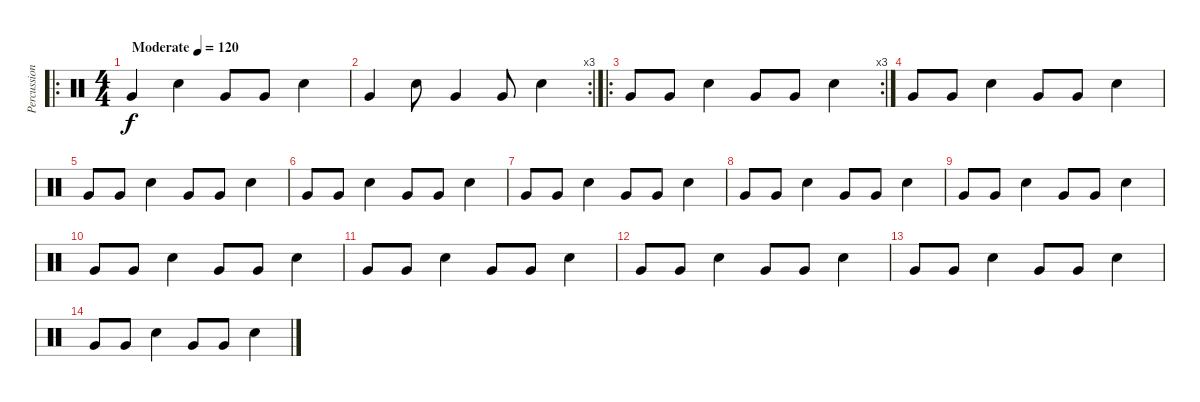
\track ("Percussioni" "Percussion") {instrument percussion}
\staff {score}
\articulation defaults
\ro
\ts (4 4)
\tempo (120 "Moderate")
\clef neutral
\ks c "Very Low Tom (hit)".4{dy f} "Snare (hit) 2".4 "Very Low Tom (hit)".8 "Very Low Tom (hit)".8 "Snare (hit) 2".4
|
\rc 3 "Very Low Tom (hit)".4 "Snare (hit) 2".8 "Very Low Tom (hit)".4 "Very Low Tom (hit)".8 "Snare (hit) 2".4
|
\ro
\rc 3 "Very Low Tom (hit)".8 "Very Low Tom (hit)".8 "Snare (hit) 2".4 "Very Low Tom (hit)".8 "Very Low Tom (hit)".8 "Snare (hit) 2".4
|
"Very Low Tom (hit)".8 "Very Low Tom (hit)".8 "Snare (hit) 2".4 "Very Low Tom (hit)".8 "Very Low Tom (hit)".8 "Snare (hit) 2".4 |
"Very Low Tom (hit)".8 "Very Low Tom (hit)".8 "Snare (hit) 2".4 "Very Low Tom (hit)".8 "Very Low Tom (hit)".8 "Snare (hit) 2".4 |
"Very Low Tom (hit)".8 "Very Low Tom (hit)".8 "Snare (hit) 2".4 "Very Low Tom (hit)".8 "Very Low Tom (hit)".8 "Snare (hit) 2".4 |
"Very Low Tom (hit)".8 "Very Low Tom (hit)".8 "Snare (hit) 2".4 "Very Low Tom (hit)".8 "Very Low Tom (hit)".8 "Snare (hit) 2".4 |
"Very Low Tom (hit)".8 "Very Low Tom (hit)".8 "Snare (hit) 2".4 "Very Low Tom (hit)".8 "Very Low Tom (hit)".8 "Snare (hit) 2".4 |
"Very Low Tom (hit)".8 "Very Low Tom (hit)".8 "Snare (hit) 2".4 "Very Low Tom (hit)".8 "Very Low Tom (hit)".8 "Snare (hit) 2".4 |
"Very Low Tom (hit)".8 "Very Low Tom (hit)".8 "Snare (hit) 2".4 "Very Low Tom (hit)".8 "Very Low Tom (hit)".8 "Snare (hit) 2".4 |
"Very Low Tom (hit)".8 "Very Low Tom (hit)".8 "Snare (hit) 2".4 "Very Low Tom (hit)".8 "Very Low Tom (hit)".8 "Snare (hit) 2".4 |
"Very Low Tom (hit)".8 "Very Low Tom (hit)".8 "Snare (hit) 2".4 "Very Low Tom (hit)".8 "Very Low Tom (hit)".8 "Snare (hit) 2".4 |
"Very Low Tom (hit)".8 "Very Low Tom (hit)".8 "Snare (hit) 2".4 "Very Low Tom (hit)".8 "Very Low Tom (hit)".8 "Snare (hit) 2".4 |
"Very Low Tom (hit)".8 "Very Low Tom (hit)".8 "Snare (hit) 2".4 "Very Low Tom (hit)".8 "Very Low Tom (hit)".8 "Snare (hit) 2".4
